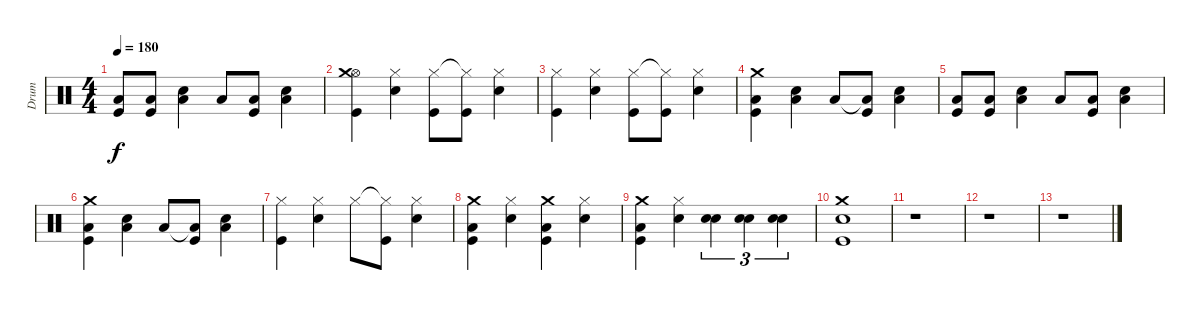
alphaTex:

\track ("Drum" "Drum") {instrument percussion}
\staff {score}
\articulation defaults
\ts (4 4)
\tempo 180
\clef neutral
\ks c
("Low Floor Tom (hit)" "Kick (hit)").8{dy f} ("Low Floor Tom (hit)" "Kick (hit)").8 ("Low Floor Tom (hit)" "Snare (hit) 2").4 "Low Floor Tom (hit)".8 ("Low Floor Tom (hit)" "Kick (hit)").8 ("Low Floor Tom (hit)" "Snare (hit) 2").4 |
("Hi-Hat (open)" "Crash medium (hit)" "Kick (hit)").4 ("Hi-Hat (closed)" "Snare (hit) 2").4 ("Hi-Hat (closed)" "Kick (hit)").8 ("Hi-Hat (closed)"{t} "Kick (hit)").8 ("Hi-Hat (closed)" "Snare (hit) 2").4 |
("Hi-Hat (closed)" "Kick (hit)").4 ("Hi-Hat (closed)" "Snare (hit) 2").4 ("Hi-Hat (closed)" "Kick (hit)").8 ("Hi-Hat (closed)"{t} "Kick (hit)").8 ("Hi-Hat (closed)" "Snare (hit) 2").4 |
("Low Floor Tom (hit)" "Crash medium (hit)" "Kick (hit)").4 ("Low Floor Tom (hit)" "Snare (hit) 2").4 "Low Floor Tom (hit)".8 ("Low Floor Tom (hit)"{t} "Kick (hit)").8 ("Low Floor Tom (hit)" "Snare (hit) 2").4 |
("Low Floor Tom (hit)" "Kick (hit)").8 ("Low Floor Tom (hit)" "Kick (hit)").8 ("Low Floor Tom (hit)" "Snare (hit) 2").4 "Low Floor Tom (hit)".8 ("Low Floor Tom (hit)" "Kick (hit)").8 ("Low Floor Tom (hit)" "Snare (hit) 2").4 |
("Low Floor Tom (hit)" "Crash medium (hit)" "Kick (hit)").4 ("Low Floor Tom (hit)" "Snare (hit) 2").4 "Low Floor Tom (hit)".8 ("Low Floor Tom (hit)"{t} "Kick (hit)").8 ("Low Floor Tom (hit)" "Snare (hit) 2").4 |
("Hi-Hat (closed)" "Kick (hit)").4 ("Hi-Hat (closed)" "Snare (hit) 2").4 "Hi-Hat (closed)".8 ("Hi-Hat (closed)"{t} "Kick (hit)").8 ("Hi-Hat (closed)" "Snare (hit) 2").4 |
("Low Floor Tom (hit)" "Crash medium (hit)" "Kick (hit)").4 ("Hi-Hat (closed)" "Snare (hit) 2").4 ("Low Floor Tom (hit)" "Crash medium (hit)" "Kick (hit)").4 ("Hi-Hat (closed)" "Snare (hit) 2").4 |
("Low Floor Tom (hit)" "Crash medium (hit)" "Kick (hit)").4 ("Hi-Hat (closed)" "Snare (hit) 2").4 ("Snare (hit) 2" "Snare (hit) 2").4{tu (3 2)} ("Snare (hit) 2" "Snare (hit) 2").4{tu (3 2)} ("Snare (hit) 2" "Snare (hit) 2").4{tu (3 2)} |
("Crash medium (hit)" "Snare (hit) 2" "Kick (hit)").1 |
r.1 |
r.1 |
r.1
